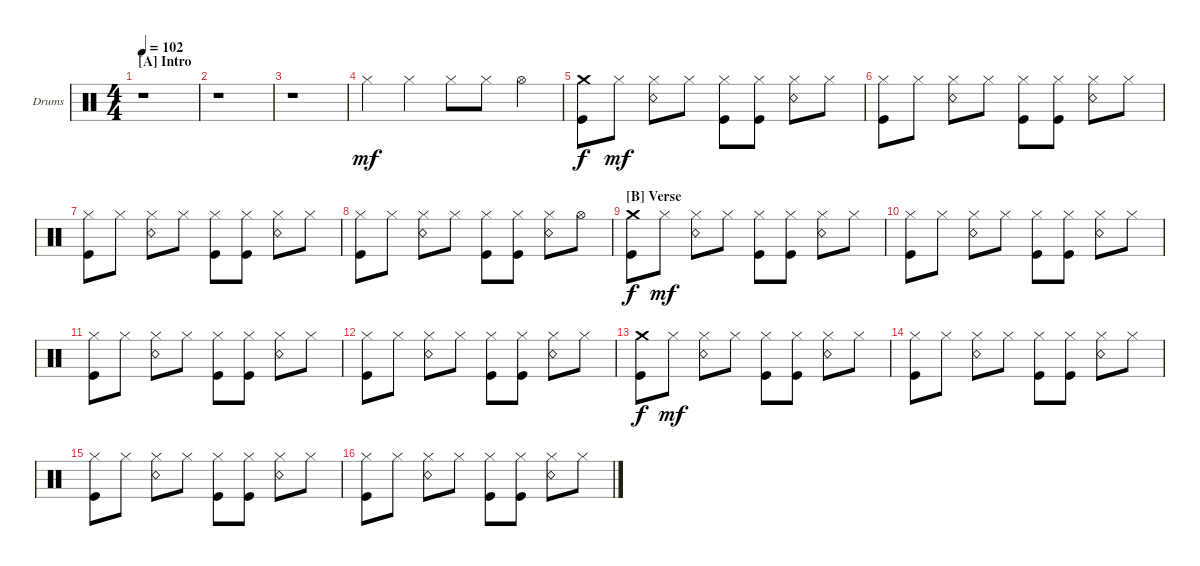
\defaultSystemsLayout 4
\bracketExtendMode groupsimilarinstruments
\firstSystemTrackNameOrientation horizontal
\otherSystemsTrackNameOrientation horizontal
\track ("Drums" "Drums") {instrument percussion}
\staff {score}
\articulation defaults
\ts (4 4)
\section ("A" "Intro")
\tempo 102
\clef neutral
\scale
0.474178
\ks c
r.1{dy mf} |
\scale
0.262911 r.1 |
\scale
0.262911 r.1 |
\scale
0.333333 "Hi-Hat (closed)".4 "Hi-Hat (closed)".4 "Hi-Hat (closed)".8 "Hi-Hat (closed)".8 "Hi-Hat (open)".4 |
("Kick (hit)" "Crash medium (hit)").8{dy f} "Hi-Hat (closed)".8{dy mf} ("Hi-Hat (closed)" "Snare (rim shot)").8 "Hi-Hat (closed)".8 ("Hi-Hat (closed)" "Kick (hit)").8 ("Hi-Hat (closed)" "Kick (hit)").8 ("Hi-Hat (closed)" "Snare (rim shot)").8 "Hi-Hat (closed)".8 |
("Kick (hit)" "Hi-Hat (closed)").8 "Hi-Hat (closed)".8 ("Hi-Hat (closed)" "Snare (rim shot)").8 "Hi-Hat (closed)".8 ("Hi-Hat (closed)" "Kick (hit)").8 ("Hi-Hat (closed)" "Kick (hit)").8 ("Hi-Hat (closed)" "Snare (rim shot)").8 "Hi-Hat (closed)".8 |
("Kick (hit)" "Hi-Hat (closed)").8 "Hi-Hat (closed)".8 ("Hi-Hat (closed)" "Snare (rim shot)").8 "Hi-Hat (closed)".8 ("Hi-Hat (closed)" "Kick (hit)").8 ("Hi-Hat (closed)" "Kick (hit)").8 ("Hi-Hat (closed)" "Snare (rim shot)").8 "Hi-Hat (closed)".8 |
("Kick (hit)" "Hi-Hat (closed)").8 "Hi-Hat (closed)".8 ("Hi-Hat (closed)" "Snare (rim shot)").8 "Hi-Hat (closed)".8 ("Hi-Hat (closed)" "Kick (hit)").8 ("Hi-Hat (closed)" "Kick (hit)").8 ("Hi-Hat (closed)" "Snare (rim shot)").8 "Hi-Hat (open)".8 |
\section ("B" "Verse ")
\scale
0.333333 ("Kick (hit)" "Crash medium (hit)").8{dy f} "Hi-Hat (closed)".8{dy mf} ("Hi-Hat (closed)" "Snare (rim shot)").8 "Hi-Hat (closed)".8 ("Hi-Hat (closed)" "Kick (hit)").8 ("Hi-Hat (closed)" "Kick (hit)").8 ("Hi-Hat (closed)" "Snare (rim shot)").8 "Hi-Hat (closed)".8 |
\scale
0.333333 ("Kick (hit)" "Hi-Hat (closed)").8 "Hi-Hat (closed)".8 ("Hi-Hat (closed)" "Snare (rim shot)").8 "Hi-Hat (closed)".8 ("Hi-Hat (closed)" "Kick (hit)").8 ("Hi-Hat (closed)" "Kick (hit)").8 ("Hi-Hat (closed)" "Snare (rim shot)").8 "Hi-Hat (closed)".8 |
\scale
0.333333 ("Kick (hit)" "Hi-Hat (closed)").8 "Hi-Hat (closed)".8 ("Hi-Hat (closed)" "Snare (rim shot)").8 "Hi-Hat (closed)".8 ("Hi-Hat (closed)" "Kick (hit)").8 ("Hi-Hat (closed)" "Kick (hit)").8 ("Hi-Hat (closed)" "Snare (rim shot)").8 "Hi-Hat (closed)".8 |
\scale
0.333333 ("Kick (hit)" "Hi-Hat (closed)").8 "Hi-Hat (closed)".8 ("Hi-Hat (closed)" "Snare (rim shot)").8 "Hi-Hat (closed)".8 ("Hi-Hat (closed)" "Kick (hit)").8 ("Hi-Hat (closed)" "Kick (hit)").8 ("Hi-Hat (closed)" "Snare (rim shot)").8 "Hi-Hat (closed)".8 |
\scale
0.333333 ("Kick (hit)" "Crash medium (hit)").8{dy f} "Hi-Hat (closed)".8{dy mf} ("Hi-Hat (closed)" "Snare (rim shot)").8 "Hi-Hat (closed)".8 ("Hi-Hat (closed)" "Kick (hit)").8 ("Hi-Hat (closed)" "Kick (hit)").8 ("Hi-Hat (closed)" "Snare (rim shot)").8 "Hi-Hat (closed)".8 |
("Kick (hit)" "Hi-Hat (closed)").8 "Hi-Hat (closed)".8 ("Hi-Hat (closed)" "Snare (rim shot)").8 "Hi-Hat (closed)".8 ("Hi-Hat (closed)" "Kick (hit)").8 ("Hi-Hat (closed)" "Kick (hit)").8 ("Hi-Hat (closed)" "Snare (rim shot)").8 "Hi-Hat (closed)".8 |
("Kick (hit)" "Hi-Hat (closed)").8 "Hi-Hat (closed)".8 ("Hi-Hat (closed)" "Snare (rim shot)").8 "Hi-Hat (closed)".8 ("Hi-Hat (closed)" "Kick (hit)").8 ("Hi-Hat (closed)" "Kick (hit)").8 ("Hi-Hat (closed)" "Snare (rim shot)").8 "Hi-Hat (closed)".8 |
("Kick (hit)" "Hi-Hat (closed)").8 "Hi-Hat (closed)".8 ("Hi-Hat (closed)" "Snare (rim shot)").8 "Hi-Hat (closed)".8 ("Hi-Hat (closed)" "Kick (hit)").8 ("Kick (hit)" "Hi-Hat (closed)").8 ("Hi-Hat (closed)" "Snare (rim shot)").8 "Hi-Hat (closed)".8
